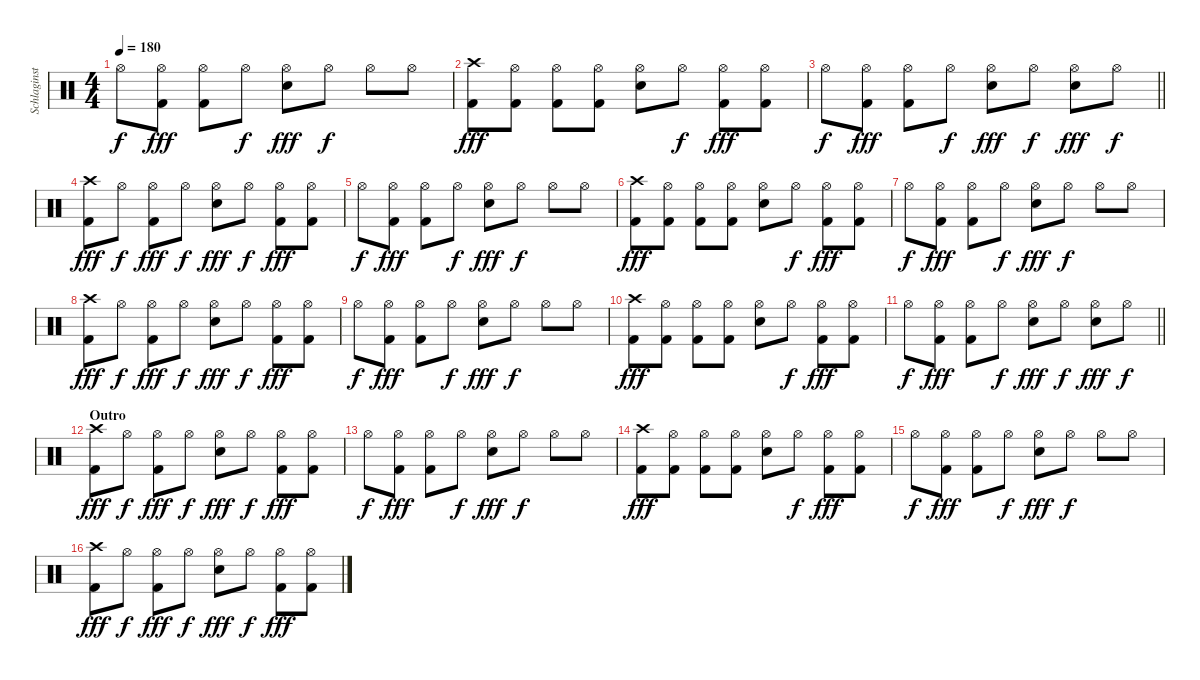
\track ("Schlaginstrumente - Auswahl" "Schlaginst") {instrument percussion}
\staff {score}
\articulation defaults
\ts (4 4)
\tempo 180
\clef neutral
\ks c "Hi-Hat (open)".8{dy f}
("Hi-Hat (open)" "Kick (hit) 2").8{dy fff} ("Hi-Hat (open)" "Kick (hit) 2").8 "Hi-Hat (open)".8{dy f} ("Hi-Hat (open)" "Snare (hit) 2").8{dy fff} "Hi-Hat (open)".8{dy f} "Hi-Hat (open)".8 "Hi-Hat (open)".8 |
("Crash high (hit)" "Kick (hit) 2").8{dy fff} ("Hi-Hat (open)" "Kick (hit) 2").8 ("Hi-Hat (open)" "Kick (hit) 2").8 ("Hi-Hat (open)" "Kick (hit) 2").8 ("Hi-Hat (open)" "Snare (hit) 2").8 "Hi-Hat (open)".8{dy f} ("Hi-Hat (open)" "Kick (hit) 2").8{dy fff} ("Hi-Hat (open)" "Kick (hit) 2").8 |
\barLineRight lightlight "Hi-Hat (open)".8{dy f}
("Hi-Hat (open)" "Kick (hit) 2").8{dy fff} ("Hi-Hat (open)" "Kick (hit) 2").8 "Hi-Hat (open)".8{dy f} ("Hi-Hat (open)" "Snare (hit) 2").8{dy fff} "Hi-Hat (open)".8{dy f} ("Hi-Hat (open)" "Snare (hit) 2").8{dy fff} "Hi-Hat (open)".8{dy f} |
("Crash high (hit)" "Kick (hit) 2").8{dy fff} "Hi-Hat (open)".8{dy f} ("Hi-Hat (open)" "Kick (hit) 2").8{dy fff} "Hi-Hat (open)".8{dy f} ("Hi-Hat (open)" "Snare (hit) 2").8{dy fff} "Hi-Hat (open)".8{dy f} ("Hi-Hat (open)" "Kick (hit) 2").8{dy fff} ("Hi-Hat (open)" "Kick (hit) 2").8 |
"Hi-Hat (open)".8{dy f} ("Hi-Hat (open)" "Kick (hit) 2").8{dy fff} ("Hi-Hat (open)" "Kick (hit) 2").8 "Hi-Hat (open)".8{dy f} ("Hi-Hat (open)" "Snare (hit) 2").8{dy fff} "Hi-Hat (open)".8{dy f} "Hi-Hat (open)".8 "Hi-Hat (open)".8 |
("Crash high (hit)" "Kick (hit) 2").8{dy fff} ("Hi-Hat (open)" "Kick (hit) 2").8 ("Hi-Hat (open)" "Kick (hit) 2").8 ("Hi-Hat (open)" "Kick (hit) 2").8 ("Hi-Hat (open)" "Snare (hit) 2").8 "Hi-Hat (open)".8{dy f} ("Hi-Hat (open)" "Kick (hit) 2").8{dy fff} ("Hi-Hat (open)" "Kick (hit) 2").8 |
"Hi-Hat (open)".8{dy f} ("Hi-Hat (open)" "Kick (hit) 2").8{dy fff} ("Hi-Hat (open)" "Kick (hit) 2").8 "Hi-Hat (open)".8{dy f} ("Hi-Hat (open)" "Snare (hit) 2").8{dy fff} "Hi-Hat (open)".8{dy f} "Hi-Hat (open)".8 "Hi-Hat (open)".8 |
("Crash high (hit)" "Kick (hit) 2").8{dy fff} "Hi-Hat (open)".8{dy f} ("Hi-Hat (open)" "Kick (hit) 2").8{dy fff} "Hi-Hat (open)".8{dy f} ("Hi-Hat (open)" "Snare (hit) 2").8{dy fff} "Hi-Hat (open)".8{dy f} ("Hi-Hat (open)" "Kick (hit) 2").8{dy fff} ("Hi-Hat (open)" "Kick (hit) 2").8 |
"Hi-Hat (open)".8{dy f} ("Hi-Hat (open)" "Kick (hit) 2").8{dy fff} ("Hi-Hat (open)" "Kick (hit) 2").8 "Hi-Hat (open)".8{dy f} ("Hi-Hat (open)" "Snare (hit) 2").8{dy fff} "Hi-Hat (open)".8{dy f} "Hi-Hat (open)".8 "Hi-Hat (open)".8 |
("Crash high (hit)" "Kick (hit) 2").8{dy fff} ("Hi-Hat (open)" "Kick (hit) 2").8 ("Hi-Hat (open)" "Kick (hit) 2").8 ("Hi-Hat (open)" "Kick (hit) 2").8 ("Hi-Hat (open)" "Snare (hit) 2").8 "Hi-Hat (open)".8{dy f} ("Hi-Hat (open)" "Kick (hit) 2").8{dy fff} ("Hi-Hat (open)" "Kick (hit) 2").8 |
\barLineRight lightlight "Hi-Hat (open)".8{dy f}
("Hi-Hat (open)" "Kick (hit) 2").8{dy fff} ("Hi-Hat (open)" "Kick (hit) 2").8 "Hi-Hat (open)".8{dy f} ("Hi-Hat (open)" "Snare (hit) 2").8{dy fff} "Hi-Hat (open)".8{dy f} ("Hi-Hat (open)" "Snare (hit) 2").8{dy fff} "Hi-Hat (open)".8{dy f} |
\section ("" "Outro")
("Crash high (hit)" "Kick (hit) 2").8{dy fff} "Hi-Hat (open)".8{dy f} ("Hi-Hat (open)" "Kick (hit) 2").8{dy fff} "Hi-Hat (open)".8{dy f} ("Hi-Hat (open)" "Snare (hit) 2").8{dy fff} "Hi-Hat (open)".8{dy f} ("Hi-Hat (open)" "Kick (hit) 2").8{dy fff} ("Hi-Hat (open)" "Kick (hit) 2").8 |
"Hi-Hat (open)".8{dy f} ("Hi-Hat (open)" "Kick (hit) 2").8{dy fff} ("Hi-Hat (open)" "Kick (hit) 2").8 "Hi-Hat (open)".8{dy f} ("Hi-Hat (open)" "Snare (hit) 2").8{dy fff} "Hi-Hat (open)".8{dy f} "Hi-Hat (open)".8 "Hi-Hat (open)".8 |
("Crash high (hit)" "Kick (hit) 2").8{dy fff} ("Hi-Hat (open)" "Kick (hit) 2").8 ("Hi-Hat (open)" "Kick (hit) 2").8 ("Hi-Hat (open)" "Kick (hit) 2").8 ("Hi-Hat (open)" "Snare (hit) 2").8 "Hi-Hat (open)".8{dy f} ("Hi-Hat (open)" "Kick (hit) 2").8{dy fff} ("Hi-Hat (open)" "Kick (hit) 2").8 |
"Hi-Hat (open)".8{dy f} ("Hi-Hat (open)" "Kick (hit) 2").8{dy fff} ("Hi-Hat (open)" "Kick (hit) 2").8 "Hi-Hat (open)".8{dy f} ("Hi-Hat (open)" "Snare (hit) 2").8{dy fff} "Hi-Hat (open)".8{dy f} "Hi-Hat (open)".8 "Hi-Hat (open)".8 |
("Crash high (hit)" "Kick (hit) 2").8{dy fff} "Hi-Hat (open)".8{dy f} ("Hi-Hat (open)" "Kick (hit) 2").8{dy fff} "Hi-Hat (open)".8{dy f} ("Hi-Hat (open)" "Snare (hit) 2").8{dy fff} "Hi-Hat (open)".8{dy f} ("Hi-Hat (open)" "Kick (hit) 2").8{dy fff} ("Hi-Hat (open)" "Kick (hit) 2").8
